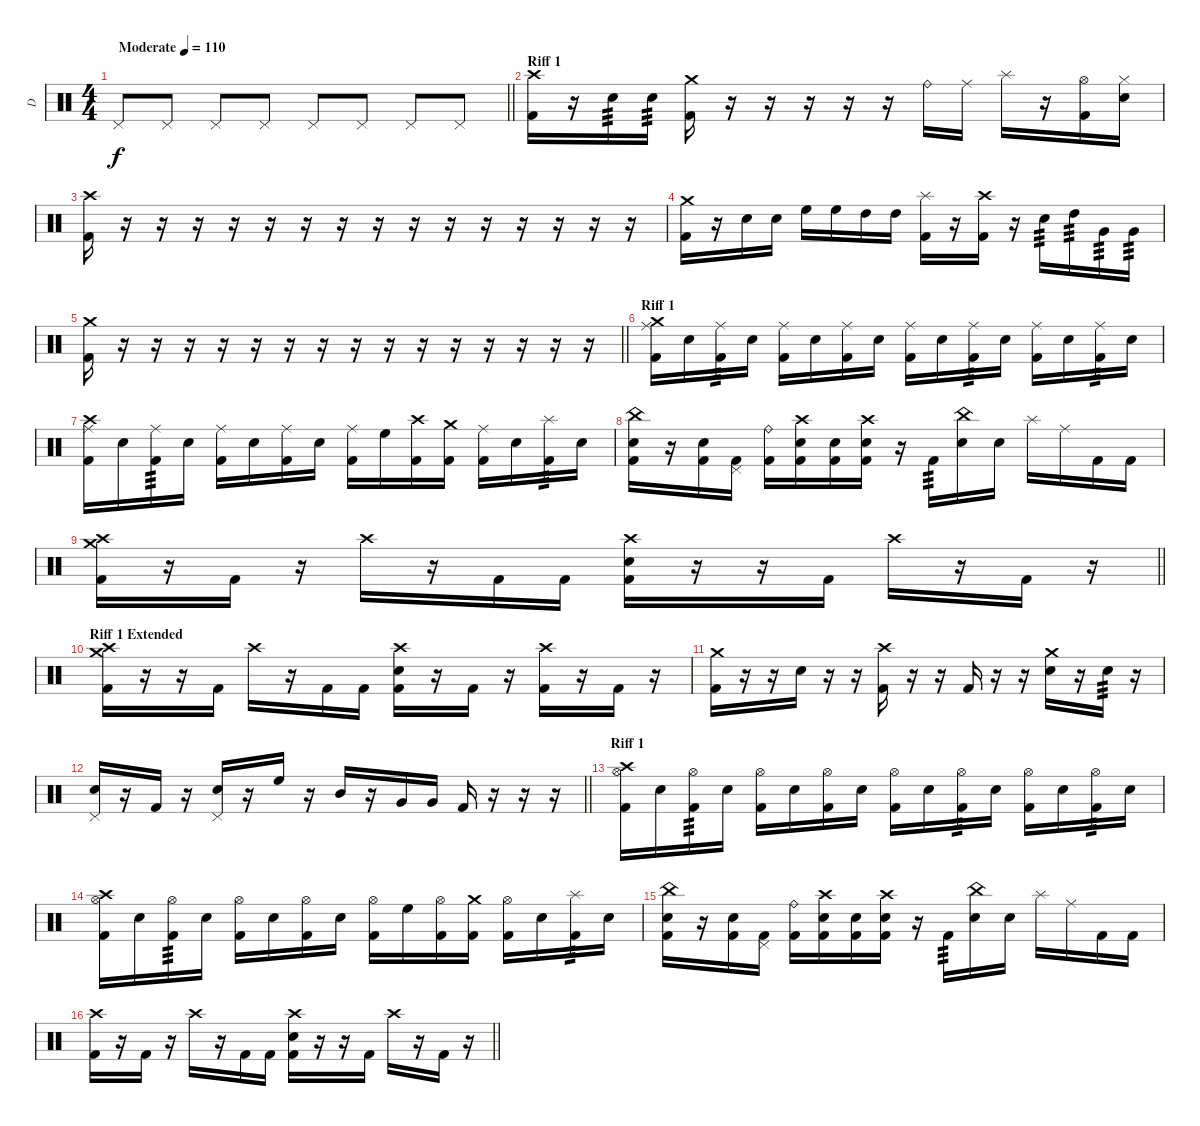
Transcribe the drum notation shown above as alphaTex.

\track ("D" "D") {instrument percussion}
\staff {score}
\articulation defaults
\ts (4 4)
\tempo (110 "Moderate")
\clef neutral
\barLineRight lightlight
\ks c "Pedal Hi-Hat (hit)".8{dy f} "Pedal Hi-Hat (hit)".8 "Pedal Hi-Hat (hit)".8 "Pedal Hi-Hat (hit)".8 "Pedal Hi-Hat (hit)".8 "Pedal Hi-Hat (hit)".8 "Pedal Hi-Hat (hit)".8 "Pedal Hi-Hat (hit)".8
|
\section ("" "Riff 1")
("Crash high (hit)" "Kick (hit) 2").16 r.16 "Electric Snare (hit)".16{tp 3} "Electric Snare (hit)".16{tp 3} ("Crash medium (hit)" "Kick (hit) 2").16 r.16 r.16 r.16 r.16 r.16 "Ride (bell)".16 "Ride (middle)".16 "Splash (hit)".16 r.16 ("Hi-Hat (open)" "Kick (hit) 2").16 ("Hi-Hat (closed)" "Electric Snare (hit)").16 |
("Crash high (hit)" "Kick (hit) 2").16 r.16 r.16 r.16 r.16 r.16 r.16 r.16 r.16 r.16 r.16 r.16 r.16 r.16 r.16 r.16 |
("Crash medium (hit)" "Kick (hit) 2").16 r.16 "Electric Snare (hit)".16 "Electric Snare (hit)".16 "High Floor Tom (hit)".16 "High Floor Tom (hit)".16 "High Tom (hit)".16 "High Tom (hit)".16 ("Splash (hit)" "Kick (hit) 2").16 r.16 ("Crash high (hit)" "Kick (hit) 2").16 r.16 "Electric Snare (hit)".16{tp 3} "High Tom (hit)".16{tp 3} "Very Low Tom (hit)".16{tp 3} "Very Low Tom (hit)".16{tp 3} |
\barLineRight lightlight
("Crash medium (hit)" "Kick (hit) 2").16 r.16 r.16 r.16 r.16 r.16 r.16 r.16 r.16 r.16 r.16 r.16 r.16 r.16 r.16 r.16 |
\section ("" "Riff 1")
("Crash medium (hit)" "Ride (middle)" "Kick (hit) 2").16 "Electric Snare (hit)".16 ("Ride (middle)" "Kick (hit) 2").16{tp 3} "Electric Snare (hit)".16 ("Ride (middle)" "Kick (hit) 2").16 "Electric Snare (hit)".16 ("Ride (middle)" "Kick (hit) 2").16 "Electric Snare (hit)".16 ("Ride (middle)" "Kick (hit) 2").16 "Electric Snare (hit)".16 ("Ride (middle)" "Kick (hit) 2").16{tp 3} "Electric Snare (hit)".16 ("Ride (middle)" "Kick (hit) 2").16 "Electric Snare (hit)".16 ("Ride (middle)" "Kick (hit) 2").16{tp 3} "Electric Snare (hit)".16 |
("Crash high (hit)" "Ride (middle)" "Kick (hit) 2").16 "Electric Snare (hit)".16 ("Ride (middle)" "Kick (hit) 2").16{tp 3} "Electric Snare (hit)".16 ("Ride (middle)" "Kick (hit) 2").16 "Electric Snare (hit)".16 ("Ride (middle)" "Kick (hit) 2").16 "Electric Snare (hit)".16 ("Ride (middle)" "Kick (hit) 2").16 "High Floor Tom (hit)".16 ("Crash high (hit)" "Kick (hit) 2").16 ("Crash medium (hit)" "Kick (hit) 2").16 ("Ride (middle)" "Kick (hit) 2").16 "Electric Snare (hit)".16 ("Splash (hit)" "Kick (hit) 2").16{tp 3} "Electric Snare (hit)".16 |
("China (hit)" "Electric Snare (hit)" "Kick (hit) 2").16 r.16 ("Electric Snare (hit)" "Kick (hit) 2").16 ("Pedal Hi-Hat (hit)" "Kick (hit) 2").16 ("Ride (bell)" "Kick (hit) 2").16 ("Crash high (hit)" "Kick (hit) 2" "Electric Snare (hit)").16 ("Kick (hit) 2" "Electric Snare (hit)").16 ("Crash high (hit)" "Kick (hit) 2" "Electric Snare (hit)").16 r.16 "Kick (hit) 2".16{tp 3} ("China (hit)" "Electric Snare (hit)").16 "Electric Snare (hit)".16 "Splash (hit)".16 "Ride (middle)".16 "Kick (hit) 2".16 "Kick (hit) 2".16 |
\barLineRight lightlight
("Kick (hit) 2" "Crash high (hit)" "Crash medium (hit)").16 r.16 "Kick (hit) 2".16 r.16 "Crash high (hit)".16 r.16 "Kick (hit) 2".16 "Kick (hit) 2".16 ("Crash high (hit)" "Kick (hit) 2" "Electric Snare (hit)").16 r.16 r.16 "Kick (hit) 2".16 "Crash high (hit)".16 r.16 "Kick (hit) 2".16 r.16 |
\section ("" "Riff 1 Extended")
("Crash medium (hit)" "Crash high (hit)" "Kick (hit) 2").16 r.16 r.16 "Kick (hit) 2".16 "Crash high (hit)".16 r.16 "Kick (hit) 2".16 "Kick (hit) 2".16 ("Crash high (hit)" "Electric Snare (hit)" "Kick (hit) 2").16 r.16 "Kick (hit) 2".16 r.16 ("Crash high (hit)" "Kick (hit) 2").16 r.16 "Kick (hit) 2".16 r.16 |
("Crash medium (hit)" "Kick (hit) 2").16 r.16 r.16 "Electric Snare (hit)".16 r.16 r.16 ("Crash high (hit)" "Kick (hit) 2").16 r.16 r.16 "Kick (hit) 2".16 r.16 r.16 ("Crash medium (hit)" "Electric Snare (hit)").16 r.16 "Electric Snare (hit)".16{tp 3} r.16 |
\barLineRight lightlight
("Electric Snare (hit)" "Pedal Hi-Hat (hit)").16 r.16 "Kick (hit) 2".16 r.16 ("Pedal Hi-Hat (hit)" "Electric Snare (hit)").16 r.16 "High Floor Tom (hit)".16 r.16 "Mid Tom (hit)".16 r.16 "Very Low Tom (hit)".16 "Very Low Tom (hit)".16 "Kick (hit) 2".16 r.16 r.16 r.16 |
\section ("" "Riff 1")
("Crash high (hit)" "Hi-Hat (open)" "Kick (hit) 2").16 "Electric Snare (hit)".16 ("Hi-Hat (open)" "Kick (hit) 2").16{tp 3} "Electric Snare (hit)".16 ("Hi-Hat (open)" "Kick (hit) 2").16 "Electric Snare (hit)".16 ("Hi-Hat (open)" "Kick (hit) 2").16 "Electric Snare (hit)".16 ("Hi-Hat (open)" "Kick (hit) 2").16 "Electric Snare (hit)".16 ("Hi-Hat (open)" "Kick (hit) 2").16{tp 3} "Electric Snare (hit)".16 ("Hi-Hat (open)" "Kick (hit) 2").16 "Electric Snare (hit)".16 ("Hi-Hat (open)" "Kick (hit) 2").16{tp 3} "Electric Snare (hit)".16 |
("Crash high (hit)" "Hi-Hat (open)" "Kick (hit) 2").16 "Electric Snare (hit)".16 ("Hi-Hat (open)" "Kick (hit) 2").16{tp 3} "Electric Snare (hit)".16 ("Hi-Hat (open)" "Kick (hit) 2").16 "Electric Snare (hit)".16 ("Hi-Hat (open)" "Kick (hit) 2").16 "Electric Snare (hit)".16 ("Hi-Hat (open)" "Kick (hit) 2").16 "High Floor Tom (hit)".16 ("Hi-Hat (open)" "Kick (hit) 2").16 ("Crash medium (hit)" "Kick (hit) 2").16 ("Hi-Hat (open)" "Kick (hit) 2").16 "Electric Snare (hit)".16 ("Splash (hit)" "Kick (hit) 2").16{tp 3} "Electric Snare (hit)".16 |
("China (hit)" "Electric Snare (hit)" "Kick (hit) 2").16 r.16 ("Electric Snare (hit)" "Kick (hit) 2").16 ("Pedal Hi-Hat (hit)" "Kick (hit) 2").16 ("Ride (bell)" "Kick (hit) 2").16 ("Crash high (hit)" "Kick (hit) 2" "Electric Snare (hit)").16 ("Kick (hit) 2" "Electric Snare (hit)").16 ("Crash high (hit)" "Kick (hit) 2" "Electric Snare (hit)").16 r.16 "Kick (hit) 2".16{tp 3} ("China (hit)" "Electric Snare (hit)").16 "Electric Snare (hit)".16 "Splash (hit)".16 "Ride (middle)".16 "Kick (hit) 2".16 "Kick (hit) 2".16 |
\barLineRight lightlight
("Kick (hit) 2" "Crash high (hit)").16 r.16 "Kick (hit) 2".16 r.16 "Crash high (hit)".16 r.16 "Kick (hit) 2".16 "Kick (hit) 2".16 ("Crash high (hit)" "Kick (hit) 2" "Electric Snare (hit)").16 r.16 r.16 "Kick (hit) 2".16 "Crash high (hit)".16 r.16 "Kick (hit) 2".16 r.16
